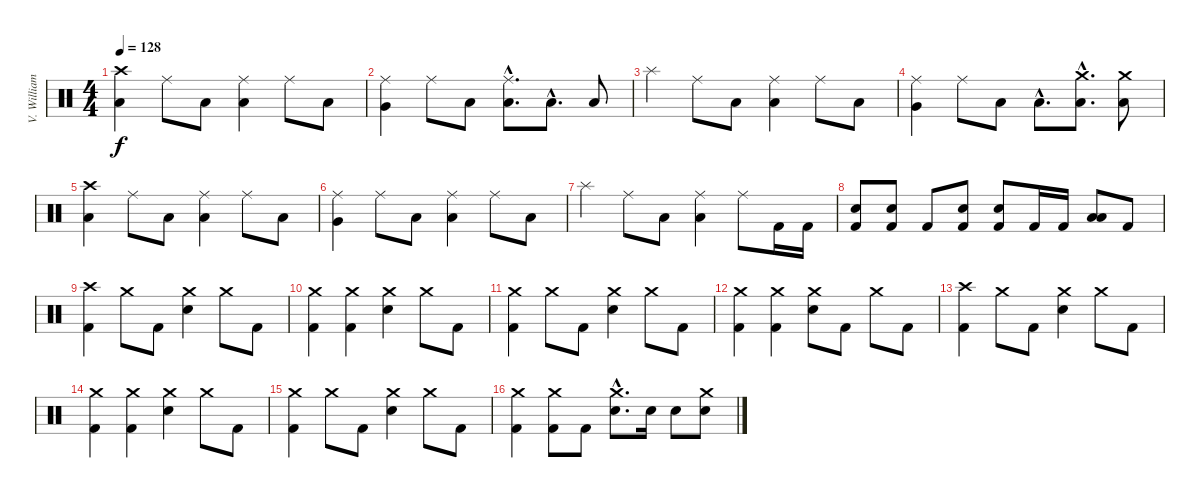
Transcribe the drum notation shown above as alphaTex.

\track ("V. Williams" "V. William") {instrument percussion}
\staff {score}
\articulation defaults
\ts (4 4)
\section ("" "")
\tempo 128
\clef neutral
\ks c
("Crash high (hit)" "Low Tom (hit)").4{dy f} "Ride (middle)".8 "Low Tom (hit)".8 ("Ride (middle)" "Low Tom (hit)").4 "Ride (middle)".8 "Low Floor Tom (hit)".8 |
("Ride (middle)" "Very Low Tom (hit)").4 "Ride (middle)".8 "Low Tom (hit)".8 ("Ride (middle)"{hac} "Low Tom (hit)"{hac}).8{d} "Low Tom (hit)"{hac}.8{d} "Low Tom (hit)".8 |
"Splash (hit)".4 "Ride (middle)".8 "Low Tom (hit)".8 ("Ride (middle)" "Low Tom (hit)").4 "Ride (middle)".8 "Low Floor Tom (hit)".8 |
("Ride (middle)" "Very Low Tom (hit)").4 "Ride (middle)".8 "Low Tom (hit)".8 "Low Tom (hit)"{hac}.8{d} ("Crash medium (hit)"{hac} "Low Tom (hit)"{hac}).8{d} ("Crash medium (hit)" "Low Tom (hit)").8 |
("Crash high (hit)" "Low Tom (hit)").4 "Ride (middle)".8 "Low Tom (hit)".8 ("Ride (middle)" "Low Tom (hit)").4 "Ride (middle)".8 "Low Floor Tom (hit)".8 |
("Ride (middle)" "Very Low Tom (hit)").4 "Ride (middle)".8 "Low Tom (hit)".8 ("Ride (middle)" "Low Tom (hit)").4 "Ride (middle)".8 "Low Floor Tom (hit)".8 |
"Splash (hit)".4 "Ride (middle)".8 "Low Tom (hit)".8 ("Ride (middle)" "Low Tom (hit)").4 "Ride (middle)".8 "Kick (hit) 2".16 "Kick (hit) 2".16 |
("Electric Snare (hit)" "Kick (hit) 2").8 ("Electric Snare (hit)" "Kick (hit) 2").8 "Kick (hit) 2".8 ("Electric Snare (hit)" "Kick (hit) 2").8 ("Electric Snare (hit)" "Kick (hit) 2").8 "Kick (hit) 2".16 "Kick (hit) 2".16 ("Low Tom (hit)" "Low Floor Tom (hit)").8 "Kick (hit) 2".8 |
\section ("" "")
("Crash high (hit)" "Kick (hit) 2").4 "Crash medium (hit)".8 "Kick (hit) 2".8 ("Crash medium (hit)" "Electric Snare (hit)").4 "Crash medium (hit)".8 "Kick (hit) 2".8 |
("Crash medium (hit)" "Kick (hit) 2").4 ("Crash medium (hit)" "Kick (hit) 2").4 ("Crash medium (hit)" "Electric Snare (hit)").4 "Crash medium (hit)".8 "Kick (hit) 2".8 |
("Crash medium (hit)" "Kick (hit) 2").4 "Crash medium (hit)".8 "Kick (hit) 2".8 ("Crash medium (hit)" "Electric Snare (hit)").4 "Crash medium (hit)".8 "Kick (hit) 2".8 |
("Crash medium (hit)" "Kick (hit) 2").4 ("Crash medium (hit)" "Kick (hit) 2").4 ("Crash medium (hit)" "Electric Snare (hit)").8 "Kick (hit) 2".8 "Crash medium (hit)".8 "Kick (hit) 2".8 |
("Crash high (hit)" "Kick (hit) 2").4 "Crash medium (hit)".8 "Kick (hit) 2".8 ("Crash medium (hit)" "Electric Snare (hit)").4 "Crash medium (hit)".8 "Kick (hit) 2".8 |
("Crash medium (hit)" "Kick (hit) 2").4 ("Crash medium (hit)" "Kick (hit) 2").4 ("Crash medium (hit)" "Electric Snare (hit)").4 "Crash medium (hit)".8 "Kick (hit) 2".8 |
("Crash medium (hit)" "Kick (hit) 2").4 "Crash medium (hit)".8 "Kick (hit) 2".8 ("Crash medium (hit)" "Electric Snare (hit)").4 "Crash medium (hit)".8 "Kick (hit) 2".8 |
("Crash medium (hit)" "Kick (hit) 2").4 ("Crash medium (hit)" "Kick (hit) 2").8 "Kick (hit) 2".8 ("Crash medium (hit)"{hac} "Electric Snare (hit)"{hac}).8{d} "Electric Snare (hit)".16 "Electric Snare (hit)".8 ("Crash medium (hit)" "Electric Snare (hit)").8
